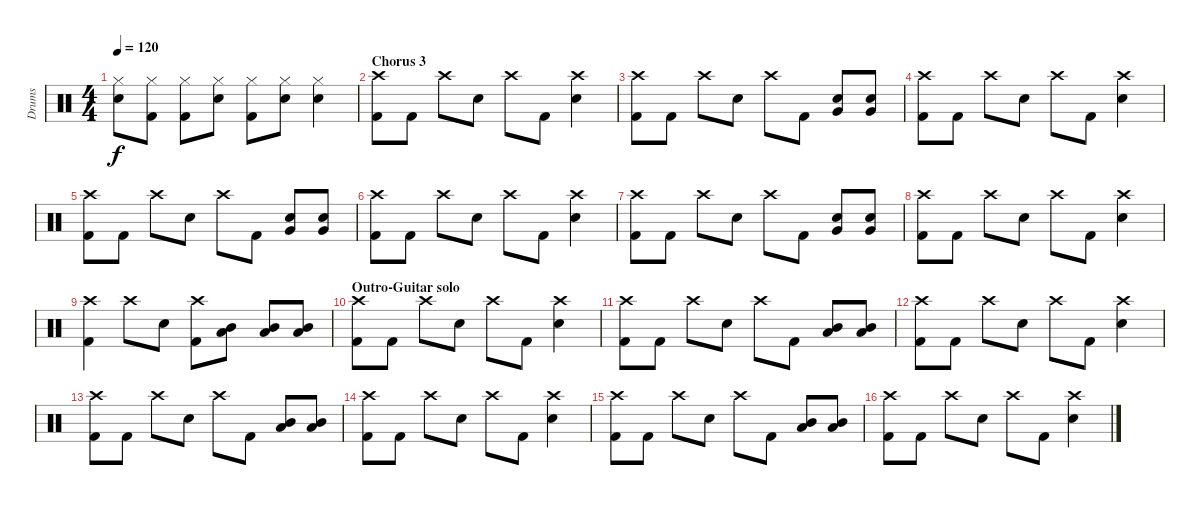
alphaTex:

\track ("Drums" "Drums") {instrument percussion}
\staff {score}
\articulation defaults
\ts (4 4)
\tempo 120
\clef neutral
\ks c
("Hi-Hat (closed)" "Snare (hit) 2").8{dy f} ("Hi-Hat (closed)" "Kick (hit) 2").8 ("Hi-Hat (closed)" "Kick (hit) 2").8 ("Hi-Hat (closed)" "Snare (hit) 2").8 ("Hi-Hat (closed)" "Kick (hit) 2").8 ("Hi-Hat (closed)" "Snare (hit) 2").8 ("Hi-Hat (closed)" "Snare (hit) 2").4 |
\section ("" "Chorus 3")
("Crash high (hit)" "Kick (hit) 2").8 "Kick (hit) 2".8 "Crash high (hit)".8 "Snare (hit) 2".8 "Crash high (hit)".8 "Kick (hit) 2".8 ("Crash high (hit)" "Snare (hit) 2").4 |
("Crash high (hit)" "Kick (hit) 2").8 "Kick (hit) 2".8 "Crash high (hit)".8 "Snare (hit) 2".8 "Crash high (hit)".8 "Kick (hit) 2".8 ("Snare (hit) 2" "Very Low Tom (hit)").8 ("Snare (hit) 2" "Very Low Tom (hit)").8 |
("Crash high (hit)" "Kick (hit) 2").8 "Kick (hit) 2".8 "Crash high (hit)".8 "Snare (hit) 2".8 "Crash high (hit)".8 "Kick (hit) 2".8 ("Crash high (hit)" "Snare (hit) 2").4 |
("Crash high (hit)" "Kick (hit) 2").8 "Kick (hit) 2".8 "Crash high (hit)".8 "Snare (hit) 2".8 "Crash high (hit)".8 "Kick (hit) 2".8 ("Snare (hit) 2" "Very Low Tom (hit)").8 ("Snare (hit) 2" "Very Low Tom (hit)").8 |
("Crash high (hit)" "Kick (hit) 2").8 "Kick (hit) 2".8 "Crash high (hit)".8 "Snare (hit) 2".8 "Crash high (hit)".8 "Kick (hit) 2".8 ("Crash high (hit)" "Snare (hit) 2").4 |
("Crash high (hit)" "Kick (hit) 2").8 "Kick (hit) 2".8 "Crash high (hit)".8 "Snare (hit) 2".8 "Crash high (hit)".8 "Kick (hit) 2".8 ("Snare (hit) 2" "Very Low Tom (hit)").8 ("Snare (hit) 2" "Very Low Tom (hit)").8 |
("Crash high (hit)" "Kick (hit) 2").8 "Kick (hit) 2".8 "Crash high (hit)".8 "Snare (hit) 2".8 "Crash high (hit)".8 "Kick (hit) 2".8 ("Crash high (hit)" "Snare (hit) 2").4 |
("Crash high (hit)" "Kick (hit) 2").4 "Crash high (hit)".8 "Snare (hit) 2".8 ("Crash high (hit)" "Kick (hit) 2").8 ("Mid Tom (hit)" "Low Tom (hit)").8 ("Mid Tom (hit)" "Low Tom (hit)").8 ("Mid Tom (hit)" "Low Tom (hit)").8 |
\section ("" "Outro-Guitar solo")
("Crash high (hit)" "Kick (hit) 2").8 "Kick (hit) 2".8 "Crash high (hit)".8 "Snare (hit) 2".8 "Crash high (hit)".8 "Kick (hit) 2".8 ("Crash high (hit)" "Snare (hit) 2").4 |
("Crash high (hit)" "Kick (hit) 2").8 "Kick (hit) 2".8 "Crash high (hit)".8 "Snare (hit) 2".8 "Crash high (hit)".8 "Kick (hit) 2".8 ("Mid Tom (hit)" "Low Tom (hit)").8 ("Mid Tom (hit)" "Low Tom (hit)").8 |
("Crash high (hit)" "Kick (hit) 2").8 "Kick (hit) 2".8 "Crash high (hit)".8 "Snare (hit) 2".8 "Crash high (hit)".8 "Kick (hit) 2".8 ("Crash high (hit)" "Snare (hit) 2").4 |
("Crash high (hit)" "Kick (hit) 2").8 "Kick (hit) 2".8 "Crash high (hit)".8 "Snare (hit) 2".8 "Crash high (hit)".8 "Kick (hit) 2".8 ("Mid Tom (hit)" "Low Tom (hit)").8 ("Mid Tom (hit)" "Low Tom (hit)").8 |
("Crash high (hit)" "Kick (hit) 2").8 "Kick (hit) 2".8 "Crash high (hit)".8 "Snare (hit) 2".8 "Crash high (hit)".8 "Kick (hit) 2".8 ("Crash high (hit)" "Snare (hit) 2").4 |
("Crash high (hit)" "Kick (hit) 2").8 "Kick (hit) 2".8 "Crash high (hit)".8 "Snare (hit) 2".8 "Crash high (hit)".8 "Kick (hit) 2".8 ("Mid Tom (hit)" "Low Tom (hit)").8 ("Mid Tom (hit)" "Low Tom (hit)").8 |
("Crash high (hit)" "Kick (hit) 2").8 "Kick (hit) 2".8 "Crash high (hit)".8 "Snare (hit) 2".8 "Crash high (hit)".8 "Kick (hit) 2".8 ("Crash high (hit)" "Snare (hit) 2").4
